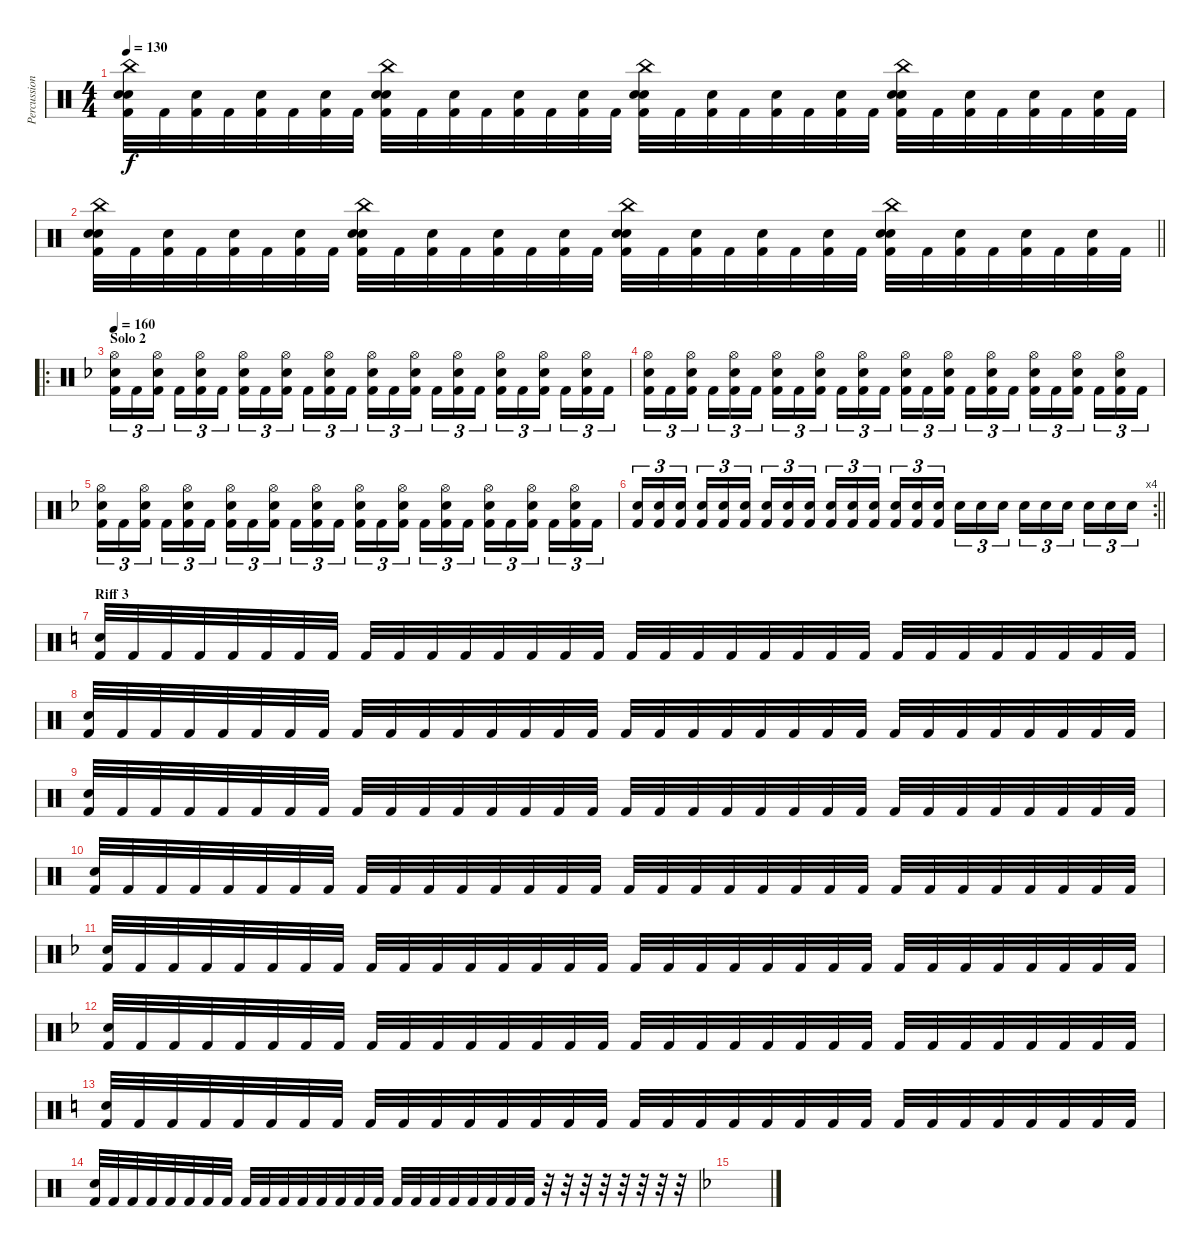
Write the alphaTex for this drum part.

\track ("Percussions" "Percussion") {instrument percussion}
\staff {score}
\articulation defaults
\ts (4 4)
\tempo 130
\clef neutral
\ks c
("China (hit)" "Snare (hit) 2" "Electric Snare (hit)" "Kick (hit) 2").32{dy f} "Kick (hit) 2".32 ("Electric Snare (hit)" "Kick (hit) 2").32 "Kick (hit) 2".32 ("Electric Snare (hit)" "Kick (hit) 2").32 "Kick (hit) 2".32 ("Electric Snare (hit)" "Kick (hit) 2").32 "Kick (hit) 2".32 ("China (hit)" "Snare (hit) 2" "Electric Snare (hit)" "Kick (hit) 2").32 "Kick (hit) 2".32 ("Electric Snare (hit)" "Kick (hit) 2").32 "Kick (hit) 2".32 ("Electric Snare (hit)" "Kick (hit) 2").32 "Kick (hit) 2".32 ("Electric Snare (hit)" "Kick (hit) 2").32 "Kick (hit) 2".32 ("China (hit)" "Snare (hit) 2" "Electric Snare (hit)" "Kick (hit) 2").32 "Kick (hit) 2".32 ("Electric Snare (hit)" "Kick (hit) 2").32 "Kick (hit) 2".32 ("Electric Snare (hit)" "Kick (hit) 2").32 "Kick (hit) 2".32 ("Electric Snare (hit)" "Kick (hit) 2").32 "Kick (hit) 2".32 ("China (hit)" "Snare (hit) 2" "Electric Snare (hit)" "Kick (hit) 2").32 "Kick (hit) 2".32 ("Electric Snare (hit)" "Kick (hit) 2").32 "Kick (hit) 2".32 ("Electric Snare (hit)" "Kick (hit) 2").32 "Kick (hit) 2".32 ("Electric Snare (hit)" "Kick (hit) 2").32 "Kick (hit) 2".32 |
\barLineRight lightlight
("China (hit)" "Snare (hit) 2" "Electric Snare (hit)" "Kick (hit) 2").32 "Kick (hit) 2".32 ("Electric Snare (hit)" "Kick (hit) 2").32 "Kick (hit) 2".32 ("Electric Snare (hit)" "Kick (hit) 2").32 "Kick (hit) 2".32 ("Electric Snare (hit)" "Kick (hit) 2").32 "Kick (hit) 2".32 ("China (hit)" "Snare (hit) 2" "Electric Snare (hit)" "Kick (hit) 2").32 "Kick (hit) 2".32 ("Electric Snare (hit)" "Kick (hit) 2").32 "Kick (hit) 2".32 ("Electric Snare (hit)" "Kick (hit) 2").32 "Kick (hit) 2".32 ("Electric Snare (hit)" "Kick (hit) 2").32 "Kick (hit) 2".32 ("China (hit)" "Snare (hit) 2" "Electric Snare (hit)" "Kick (hit) 2").32 "Kick (hit) 2".32 ("Electric Snare (hit)" "Kick (hit) 2").32 "Kick (hit) 2".32 ("Electric Snare (hit)" "Kick (hit) 2").32 "Kick (hit) 2".32 ("Electric Snare (hit)" "Kick (hit) 2").32 "Kick (hit) 2".32 ("China (hit)" "Snare (hit) 2" "Electric Snare (hit)" "Kick (hit) 2").32 "Kick (hit) 2".32 ("Electric Snare (hit)" "Kick (hit) 2").32 "Kick (hit) 2".32 ("Electric Snare (hit)" "Kick (hit) 2").32 "Kick (hit) 2".32 ("Electric Snare (hit)" "Kick (hit) 2").32 "Kick (hit) 2".32 |
\ro
\section ("" "Solo 2")
\tempo 160
\ks f
("Hi-Hat (open)" "Electric Snare (hit)" "Kick (hit) 2").16{tu (3 2)} "Kick (hit) 2".16{tu (3 2)} ("Hi-Hat (open)" "Electric Snare (hit)" "Kick (hit) 2").16{tu (3 2) beam splitsecondary} "Kick (hit) 2".16{tu (3 2)} ("Hi-Hat (open)" "Electric Snare (hit)" "Kick (hit) 2").16{tu (3 2)} "Kick (hit) 2".16{tu (3 2)} ("Hi-Hat (open)" "Electric Snare (hit)" "Kick (hit) 2").16{tu (3 2)} "Kick (hit) 2".16{tu (3 2)} ("Hi-Hat (open)" "Electric Snare (hit)" "Kick (hit) 2").16{tu (3 2) beam splitsecondary} "Kick (hit) 2".16{tu (3 2)} ("Hi-Hat (open)" "Electric Snare (hit)" "Kick (hit) 2").16{tu (3 2)} "Kick (hit) 2".16{tu (3 2)} ("Hi-Hat (open)" "Electric Snare (hit)" "Kick (hit) 2").16{tu (3 2)} "Kick (hit) 2".16{tu (3 2)} ("Hi-Hat (open)" "Electric Snare (hit)" "Kick (hit) 2").16{tu (3 2) beam splitsecondary} "Kick (hit) 2".16{tu (3 2)} ("Hi-Hat (open)" "Electric Snare (hit)" "Kick (hit) 2").16{tu (3 2)} "Kick (hit) 2".16{tu (3 2)} ("Hi-Hat (open)" "Electric Snare (hit)" "Kick (hit) 2").16{tu (3 2)} "Kick (hit) 2".16{tu (3 2)} ("Hi-Hat (open)" "Electric Snare (hit)" "Kick (hit) 2").16{tu (3 2) beam splitsecondary} "Kick (hit) 2".16{tu (3 2)} ("Hi-Hat (open)" "Electric Snare (hit)" "Kick (hit) 2").16{tu (3 2)} "Kick (hit) 2".16{tu (3 2)} |
("Hi-Hat (open)" "Electric Snare (hit)" "Kick (hit) 2").16{tu (3 2)} "Kick (hit) 2".16{tu (3 2)} ("Hi-Hat (open)" "Electric Snare (hit)" "Kick (hit) 2").16{tu (3 2) beam splitsecondary} "Kick (hit) 2".16{tu (3 2)} ("Hi-Hat (open)" "Electric Snare (hit)" "Kick (hit) 2").16{tu (3 2)} "Kick (hit) 2".16{tu (3 2)} ("Hi-Hat (open)" "Electric Snare (hit)" "Kick (hit) 2").16{tu (3 2)} "Kick (hit) 2".16{tu (3 2)} ("Hi-Hat (open)" "Electric Snare (hit)" "Kick (hit) 2").16{tu (3 2) beam splitsecondary} "Kick (hit) 2".16{tu (3 2)} ("Hi-Hat (open)" "Electric Snare (hit)" "Kick (hit) 2").16{tu (3 2)} "Kick (hit) 2".16{tu (3 2)} ("Hi-Hat (open)" "Electric Snare (hit)" "Kick (hit) 2").16{tu (3 2)} "Kick (hit) 2".16{tu (3 2)} ("Hi-Hat (open)" "Electric Snare (hit)" "Kick (hit) 2").16{tu (3 2) beam splitsecondary} "Kick (hit) 2".16{tu (3 2)} ("Hi-Hat (open)" "Electric Snare (hit)" "Kick (hit) 2").16{tu (3 2)} "Kick (hit) 2".16{tu (3 2)} ("Hi-Hat (open)" "Electric Snare (hit)" "Kick (hit) 2").16{tu (3 2)} "Kick (hit) 2".16{tu (3 2)} ("Hi-Hat (open)" "Electric Snare (hit)" "Kick (hit) 2").16{tu (3 2) beam splitsecondary} "Kick (hit) 2".16{tu (3 2)} ("Hi-Hat (open)" "Electric Snare (hit)" "Kick (hit) 2").16{tu (3 2)} "Kick (hit) 2".16{tu (3 2)} |
("Hi-Hat (open)" "Electric Snare (hit)" "Kick (hit) 2").16{tu (3 2)} "Kick (hit) 2".16{tu (3 2)} ("Hi-Hat (open)" "Electric Snare (hit)" "Kick (hit) 2").16{tu (3 2) beam splitsecondary} "Kick (hit) 2".16{tu (3 2)} ("Hi-Hat (open)" "Electric Snare (hit)" "Kick (hit) 2").16{tu (3 2)} "Kick (hit) 2".16{tu (3 2)} ("Hi-Hat (open)" "Electric Snare (hit)" "Kick (hit) 2").16{tu (3 2)} "Kick (hit) 2".16{tu (3 2)} ("Hi-Hat (open)" "Electric Snare (hit)" "Kick (hit) 2").16{tu (3 2) beam splitsecondary} "Kick (hit) 2".16{tu (3 2)} ("Hi-Hat (open)" "Electric Snare (hit)" "Kick (hit) 2").16{tu (3 2)} "Kick (hit) 2".16{tu (3 2)} ("Hi-Hat (open)" "Electric Snare (hit)" "Kick (hit) 2").16{tu (3 2)} "Kick (hit) 2".16{tu (3 2)} ("Hi-Hat (open)" "Electric Snare (hit)" "Kick (hit) 2").16{tu (3 2) beam splitsecondary} "Kick (hit) 2".16{tu (3 2)} ("Hi-Hat (open)" "Electric Snare (hit)" "Kick (hit) 2").16{tu (3 2)} "Kick (hit) 2".16{tu (3 2)} ("Hi-Hat (open)" "Electric Snare (hit)" "Kick (hit) 2").16{tu (3 2)} "Kick (hit) 2".16{tu (3 2)} ("Hi-Hat (open)" "Electric Snare (hit)" "Kick (hit) 2").16{tu (3 2) beam splitsecondary} "Kick (hit) 2".16{tu (3 2)} ("Hi-Hat (open)" "Electric Snare (hit)" "Kick (hit) 2").16{tu (3 2)} "Kick (hit) 2".16{tu (3 2)} |
\rc 4
\barLineRight lightlight
("Electric Snare (hit)" "Kick (hit) 2").16{tu (3 2)} ("Electric Snare (hit)" "Kick (hit) 2").16{tu (3 2)} ("Electric Snare (hit)" "Kick (hit) 2").16{tu (3 2) beam splitsecondary} ("Electric Snare (hit)" "Kick (hit) 2").16{tu (3 2)} ("Electric Snare (hit)" "Kick (hit) 2").16{tu (3 2)} ("Electric Snare (hit)" "Kick (hit) 2").16{tu (3 2)} ("Electric Snare (hit)" "Kick (hit) 2").16{tu (3 2)} ("Electric Snare (hit)" "Kick (hit) 2").16{tu (3 2)} ("Electric Snare (hit)" "Kick (hit) 2").16{tu (3 2) beam splitsecondary} ("Electric Snare (hit)" "Kick (hit) 2").16{tu (3 2)} ("Electric Snare (hit)" "Kick (hit) 2").16{tu (3 2)} ("Electric Snare (hit)" "Kick (hit) 2").16{tu (3 2)} ("Electric Snare (hit)" "Kick (hit) 2").16{tu (3 2)} ("Electric Snare (hit)" "Kick (hit) 2").16{tu (3 2)} ("Electric Snare (hit)" "Kick (hit) 2").16{tu (3 2) beam splitsecondary} "Electric Snare (hit)".16{tu (3 2)} "Electric Snare (hit)".16{tu (3 2)} "Electric Snare (hit)".16{tu (3 2)} "Electric Snare (hit)".16{tu (3 2)} "Electric Snare (hit)".16{tu (3 2)} "Electric Snare (hit)".16{tu (3 2) beam splitsecondary} "Electric Snare (hit)".16{tu (3 2)} "Electric Snare (hit)".16{tu (3 2)} "Electric Snare (hit)".16{tu (3 2)} |
\section ("" "Riff 3")
\ks c
("Electric Snare (hit)" "Kick (hit) 2").32 "Kick (hit) 2".32 "Kick (hit) 2".32 "Kick (hit) 2".32 "Kick (hit) 2".32 "Kick (hit) 2".32 "Kick (hit) 2".32 "Kick (hit) 2".32 "Kick (hit) 2".32 "Kick (hit) 2".32 "Kick (hit) 2".32 "Kick (hit) 2".32 "Kick (hit) 2".32 "Kick (hit) 2".32 "Kick (hit) 2".32 "Kick (hit) 2".32 "Kick (hit) 2".32 "Kick (hit) 2".32 "Kick (hit) 2".32 "Kick (hit) 2".32 "Kick (hit) 2".32 "Kick (hit) 2".32 "Kick (hit) 2".32 "Kick (hit) 2".32 "Kick (hit) 2".32 "Kick (hit) 2".32 "Kick (hit) 2".32 "Kick (hit) 2".32 "Kick (hit) 2".32 "Kick (hit) 2".32 "Kick (hit) 2".32 "Kick (hit) 2".32 |
("Electric Snare (hit)" "Kick (hit) 2").32 "Kick (hit) 2".32 "Kick (hit) 2".32 "Kick (hit) 2".32 "Kick (hit) 2".32 "Kick (hit) 2".32 "Kick (hit) 2".32 "Kick (hit) 2".32 "Kick (hit) 2".32 "Kick (hit) 2".32 "Kick (hit) 2".32 "Kick (hit) 2".32 "Kick (hit) 2".32 "Kick (hit) 2".32 "Kick (hit) 2".32 "Kick (hit) 2".32 "Kick (hit) 2".32 "Kick (hit) 2".32 "Kick (hit) 2".32 "Kick (hit) 2".32 "Kick (hit) 2".32 "Kick (hit) 2".32 "Kick (hit) 2".32 "Kick (hit) 2".32 "Kick (hit) 2".32 "Kick (hit) 2".32 "Kick (hit) 2".32 "Kick (hit) 2".32 "Kick (hit) 2".32 "Kick (hit) 2".32 "Kick (hit) 2".32 "Kick (hit) 2".32 |
("Electric Snare (hit)" "Kick (hit) 2").32 "Kick (hit) 2".32 "Kick (hit) 2".32 "Kick (hit) 2".32 "Kick (hit) 2".32 "Kick (hit) 2".32 "Kick (hit) 2".32 "Kick (hit) 2".32 "Kick (hit) 2".32 "Kick (hit) 2".32 "Kick (hit) 2".32 "Kick (hit) 2".32 "Kick (hit) 2".32 "Kick (hit) 2".32 "Kick (hit) 2".32 "Kick (hit) 2".32 "Kick (hit) 2".32 "Kick (hit) 2".32 "Kick (hit) 2".32 "Kick (hit) 2".32 "Kick (hit) 2".32 "Kick (hit) 2".32 "Kick (hit) 2".32 "Kick (hit) 2".32 "Kick (hit) 2".32 "Kick (hit) 2".32 "Kick (hit) 2".32 "Kick (hit) 2".32 "Kick (hit) 2".32 "Kick (hit) 2".32 "Kick (hit) 2".32 "Kick (hit) 2".32 |
("Electric Snare (hit)" "Kick (hit) 2").32 "Kick (hit) 2".32 "Kick (hit) 2".32 "Kick (hit) 2".32 "Kick (hit) 2".32 "Kick (hit) 2".32 "Kick (hit) 2".32 "Kick (hit) 2".32 "Kick (hit) 2".32 "Kick (hit) 2".32 "Kick (hit) 2".32 "Kick (hit) 2".32 "Kick (hit) 2".32 "Kick (hit) 2".32 "Kick (hit) 2".32 "Kick (hit) 2".32 "Kick (hit) 2".32 "Kick (hit) 2".32 "Kick (hit) 2".32 "Kick (hit) 2".32 "Kick (hit) 2".32 "Kick (hit) 2".32 "Kick (hit) 2".32 "Kick (hit) 2".32 "Kick (hit) 2".32 "Kick (hit) 2".32 "Kick (hit) 2".32 "Kick (hit) 2".32 "Kick (hit) 2".32 "Kick (hit) 2".32 "Kick (hit) 2".32 "Kick (hit) 2".32 |
\ks dminor
("Electric Snare (hit)" "Kick (hit) 2").32 "Kick (hit) 2".32 "Kick (hit) 2".32 "Kick (hit) 2".32 "Kick (hit) 2".32 "Kick (hit) 2".32 "Kick (hit) 2".32 "Kick (hit) 2".32 "Kick (hit) 2".32 "Kick (hit) 2".32 "Kick (hit) 2".32 "Kick (hit) 2".32 "Kick (hit) 2".32 "Kick (hit) 2".32 "Kick (hit) 2".32 "Kick (hit) 2".32 "Kick (hit) 2".32 "Kick (hit) 2".32 "Kick (hit) 2".32 "Kick (hit) 2".32 "Kick (hit) 2".32 "Kick (hit) 2".32 "Kick (hit) 2".32 "Kick (hit) 2".32 "Kick (hit) 2".32 "Kick (hit) 2".32 "Kick (hit) 2".32 "Kick (hit) 2".32 "Kick (hit) 2".32 "Kick (hit) 2".32 "Kick (hit) 2".32 "Kick (hit) 2".32 |
("Electric Snare (hit)" "Kick (hit) 2").32 "Kick (hit) 2".32 "Kick (hit) 2".32 "Kick (hit) 2".32 "Kick (hit) 2".32 "Kick (hit) 2".32 "Kick (hit) 2".32 "Kick (hit) 2".32 "Kick (hit) 2".32 "Kick (hit) 2".32 "Kick (hit) 2".32 "Kick (hit) 2".32 "Kick (hit) 2".32 "Kick (hit) 2".32 "Kick (hit) 2".32 "Kick (hit) 2".32 "Kick (hit) 2".32 "Kick (hit) 2".32 "Kick (hit) 2".32 "Kick (hit) 2".32 "Kick (hit) 2".32 "Kick (hit) 2".32 "Kick (hit) 2".32 "Kick (hit) 2".32 "Kick (hit) 2".32 "Kick (hit) 2".32 "Kick (hit) 2".32 "Kick (hit) 2".32 "Kick (hit) 2".32 "Kick (hit) 2".32 "Kick (hit) 2".32 "Kick (hit) 2".32 |
\ks c
("Electric Snare (hit)" "Kick (hit) 2").32 "Kick (hit) 2".32 "Kick (hit) 2".32 "Kick (hit) 2".32 "Kick (hit) 2".32 "Kick (hit) 2".32 "Kick (hit) 2".32 "Kick (hit) 2".32 "Kick (hit) 2".32 "Kick (hit) 2".32 "Kick (hit) 2".32 "Kick (hit) 2".32 "Kick (hit) 2".32 "Kick (hit) 2".32 "Kick (hit) 2".32 "Kick (hit) 2".32 "Kick (hit) 2".32 "Kick (hit) 2".32 "Kick (hit) 2".32 "Kick (hit) 2".32 "Kick (hit) 2".32 "Kick (hit) 2".32 "Kick (hit) 2".32 "Kick (hit) 2".32 "Kick (hit) 2".32 "Kick (hit) 2".32 "Kick (hit) 2".32 "Kick (hit) 2".32 "Kick (hit) 2".32 "Kick (hit) 2".32 "Kick (hit) 2".32 "Kick (hit) 2".32 |
("Electric Snare (hit)" "Kick (hit) 2").32 "Kick (hit) 2".32 "Kick (hit) 2".32 "Kick (hit) 2".32 "Kick (hit) 2".32 "Kick (hit) 2".32 "Kick (hit) 2".32 "Kick (hit) 2".32 "Kick (hit) 2".32 "Kick (hit) 2".32 "Kick (hit) 2".32 "Kick (hit) 2".32 "Kick (hit) 2".32 "Kick (hit) 2".32 "Kick (hit) 2".32 "Kick (hit) 2".32 "Kick (hit) 2".32 "Kick (hit) 2".32 "Kick (hit) 2".32 "Kick (hit) 2".32 "Kick (hit) 2".32 "Kick (hit) 2".32 "Kick (hit) 2".32 "Kick (hit) 2".32 r.32 r.32 r.32 r.32 r.32 r.32 r.32 r.32 |
\ks dminor
